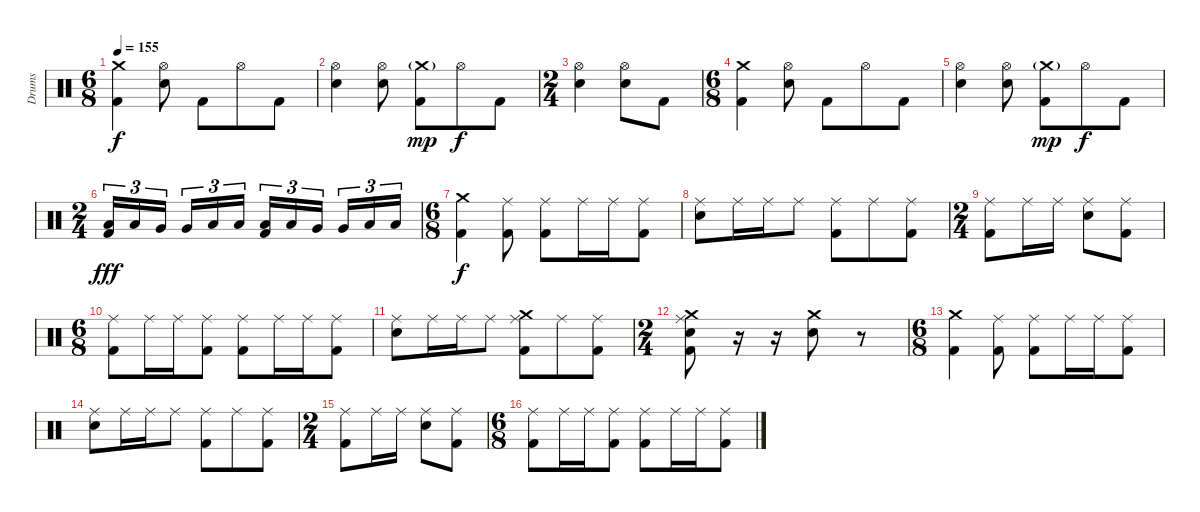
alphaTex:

\track ("Drums" "Drums") {instrument percussion}
\staff {score}
\articulation defaults
\ts (6 8)
\tempo 155
\clef neutral
\ks c
("Crash medium (hit)" "Kick (hit) 2").4{dy f} ("Hi-Hat (open)" "Electric Snare (hit)").8 "Kick (hit) 2".8 "Hi-Hat (open)".8 "Kick (hit) 2".8 |
("Hi-Hat (open)" "Electric Snare (hit)").4 ("Hi-Hat (open)" "Electric Snare (hit)").8 ("Crash medium (hit)"{g} "Kick (hit) 2").8{dy mp} "Hi-Hat (open)".8{dy f} "Kick (hit) 2".8 |
\ts (2 4)
("Hi-Hat (open)" "Electric Snare (hit)").4 ("Hi-Hat (open)" "Electric Snare (hit)").8 "Kick (hit) 2".8 |
\ts (6 8)
("Crash medium (hit)" "Kick (hit) 2").4 ("Hi-Hat (open)" "Electric Snare (hit)").8 "Kick (hit) 2".8 "Hi-Hat (open)".8 "Kick (hit) 2".8 |
("Hi-Hat (open)" "Electric Snare (hit)").4 ("Hi-Hat (open)" "Electric Snare (hit)").8 ("Crash medium (hit)"{g} "Kick (hit) 2").8{dy mp} "Hi-Hat (open)".8{dy f} "Kick (hit) 2".8 |
\ts (2 4)
("Low Tom (hit)" "Kick (hit) 2").16{tu (3 2) dy fff} "Low Tom (hit)".16{tu (3 2)} "Very Low Tom (hit)".16{tu (3 2)} "Very Low Tom (hit)".16{tu (3 2)} "Low Floor Tom (hit)".16{tu (3 2)} "Low Floor Tom (hit)".16{tu (3 2)} ("Low Tom (hit)" "Kick (hit) 2").16{tu (3 2)} "Low Tom (hit)".16{tu (3 2)} "Very Low Tom (hit)".16{tu (3 2)} "Very Low Tom (hit)".16{tu (3 2)} "Low Floor Tom (hit)".16{tu (3 2)} "Low Floor Tom (hit)".16{tu (3 2)} |
\ts (6 8)
("Crash medium (hit)" "Kick (hit) 2").4{dy f} ("Ride (middle)" "Kick (hit) 2").8 ("Ride (middle)" "Kick (hit) 2").8 "Ride (middle)".16 "Ride (middle)".16 ("Ride (middle)" "Kick (hit) 2").8 |
("Ride (middle)" "Electric Snare (hit)").8 "Ride (middle)".16 "Ride (middle)".16 "Ride (middle)".8 ("Ride (middle)" "Kick (hit) 2").8 "Ride (middle)".8 ("Ride (middle)" "Kick (hit) 2").8 |
\ts (2 4)
("Ride (middle)" "Kick (hit) 2").8 "Ride (middle)".16 "Ride (middle)".16 ("Ride (middle)" "Electric Snare (hit)").8 ("Ride (middle)" "Kick (hit) 2").8 |
\ts (6 8)
("Ride (middle)" "Kick (hit) 2").8 "Ride (middle)".16 "Ride (middle)".16 ("Ride (middle)" "Kick (hit) 2").8 ("Ride (middle)" "Kick (hit) 2").8 "Ride (middle)".16 "Ride (middle)".16 ("Ride (middle)" "Kick (hit) 2").8 |
("Ride (middle)" "Electric Snare (hit)").8 "Ride (middle)".16 "Ride (middle)".16 "Ride (middle)".8 ("Crash medium (hit)" "Ride (middle)" "Kick (hit) 2").8 "Ride (middle)".8 ("Ride (middle)" "Kick (hit) 2").8 |
\ts (2 4)
("Crash medium (hit)" "Ride (middle)" "Electric Snare (hit)" "Kick (hit) 2").8 r.16 r.16 ("Crash medium (hit)" "Electric Snare (hit)").8 r.8 |
\ts (6 8)
("Crash medium (hit)" "Kick (hit) 2").4 ("Ride (middle)" "Kick (hit) 2").8 ("Ride (middle)" "Kick (hit) 2").8 "Ride (middle)".16 "Ride (middle)".16 ("Ride (middle)" "Kick (hit) 2").8 |
("Ride (middle)" "Electric Snare (hit)").8 "Ride (middle)".16 "Ride (middle)".16 "Ride (middle)".8 ("Ride (middle)" "Kick (hit) 2").8 "Ride (middle)".8 ("Ride (middle)" "Kick (hit) 2").8 |
\ts (2 4)
("Ride (middle)" "Kick (hit) 2").8 "Ride (middle)".16 "Ride (middle)".16 ("Ride (middle)" "Electric Snare (hit)").8 ("Ride (middle)" "Kick (hit) 2").8 |
\ts (6 8)
("Ride (middle)" "Kick (hit) 2").8 "Ride (middle)".16 "Ride (middle)".16 ("Ride (middle)" "Kick (hit) 2").8 ("Ride (middle)" "Kick (hit) 2").8 "Ride (middle)".16 "Ride (middle)".16 ("Ride (middle)" "Kick (hit) 2").8
